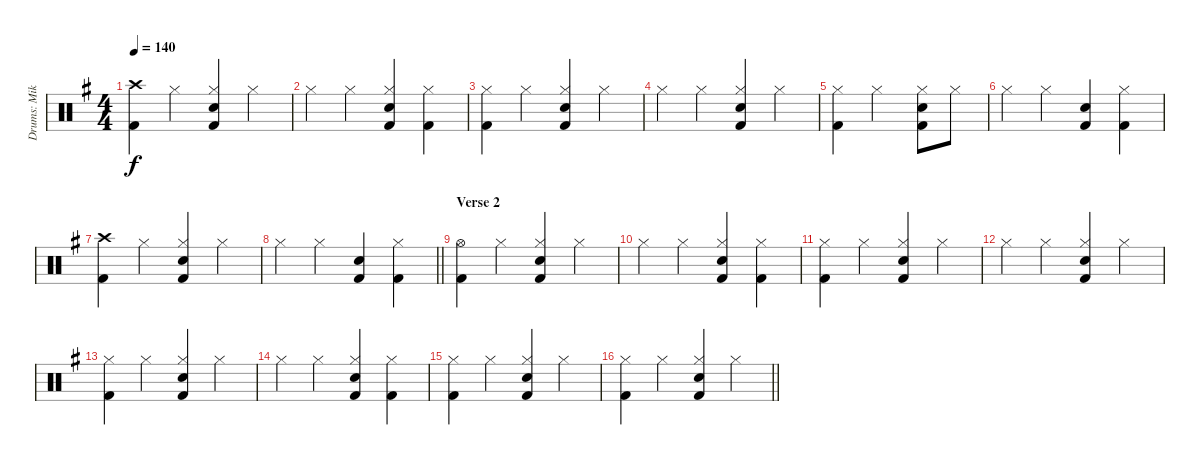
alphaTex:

\track ("Drums: Mike Terrana" "Drums: Mik") {instrument percussion}
\staff {score}
\articulation defaults
\ts (4 4)
\tempo 140
\clef neutral
\ks eminor
("Crash high (hit)" "Kick (hit) 2").4{dy f} "Hi-Hat (closed)".4 ("Hi-Hat (closed)" "Electric Snare (hit)" "Kick (hit) 2").4 "Hi-Hat (closed)".4 |
"Hi-Hat (closed)".4 "Hi-Hat (closed)".4 ("Hi-Hat (closed)" "Electric Snare (hit)" "Kick (hit) 2").4 ("Hi-Hat (closed)" "Kick (hit) 2").4 |
("Hi-Hat (closed)" "Kick (hit) 2").4 "Hi-Hat (closed)".4 ("Hi-Hat (closed)" "Electric Snare (hit)" "Kick (hit) 2").4 "Hi-Hat (closed)".4 |
"Hi-Hat (closed)".4 "Hi-Hat (closed)".4 ("Hi-Hat (closed)" "Electric Snare (hit)" "Kick (hit) 2").4 "Hi-Hat (closed)".4 |
("Hi-Hat (closed)" "Kick (hit) 2").4 "Hi-Hat (closed)".2 ("Hi-Hat (closed)" "Electric Snare (hit)" "Kick (hit) 2").8 "Hi-Hat (closed)".8 |
"Hi-Hat (closed)".4 "Hi-Hat (closed)".4 ("Electric Snare (hit)" "Kick (hit) 2").4 ("Hi-Hat (closed)" "Kick (hit) 2").4 |
("Crash high (hit)" "Kick (hit) 2").4 "Hi-Hat (closed)".4 ("Hi-Hat (closed)" "Electric Snare (hit)" "Kick (hit) 2").4 "Hi-Hat (closed)".4 |
\barLineRight lightlight "Hi-Hat (closed)".4 "Hi-Hat (closed)".4
("Electric Snare (hit)" "Kick (hit) 2").4 ("Hi-Hat (closed)" "Kick (hit) 2").4 |
\section ("" "Verse 2")
("Hi-Hat (open)" "Kick (hit) 2").4 "Hi-Hat (closed)".4 ("Hi-Hat (closed)" "Electric Snare (hit)" "Kick (hit) 2").4 "Hi-Hat (closed)".4 |
"Hi-Hat (closed)".4 "Hi-Hat (closed)".4 ("Hi-Hat (closed)" "Electric Snare (hit)" "Kick (hit) 2").4 ("Hi-Hat (closed)" "Kick (hit) 2").4 |
("Hi-Hat (closed)" "Kick (hit) 2").4 "Hi-Hat (closed)".4 ("Hi-Hat (closed)" "Electric Snare (hit)" "Kick (hit) 2").4 "Hi-Hat (closed)".4 |
"Hi-Hat (closed)".4 "Hi-Hat (closed)".4 ("Hi-Hat (closed)" "Electric Snare (hit)" "Kick (hit) 2").4 "Hi-Hat (closed)".4 |
("Hi-Hat (closed)" "Kick (hit) 2").4 "Hi-Hat (closed)".4 ("Hi-Hat (closed)" "Electric Snare (hit)" "Kick (hit) 2").4 "Hi-Hat (closed)".4 |
"Hi-Hat (closed)".4 "Hi-Hat (closed)".4 ("Hi-Hat (closed)" "Electric Snare (hit)" "Kick (hit) 2").4 ("Hi-Hat (closed)" "Kick (hit) 2").4 |
("Hi-Hat (closed)" "Kick (hit) 2").4 "Hi-Hat (closed)".4 ("Hi-Hat (closed)" "Electric Snare (hit)" "Kick (hit) 2").4 "Hi-Hat (closed)".4 |
\barLineRight lightlight
("Hi-Hat (closed)" "Kick (hit) 2").4 "Hi-Hat (closed)".4 ("Hi-Hat (closed)" "Electric Snare (hit)" "Kick (hit) 2").4 "Hi-Hat (closed)".4
